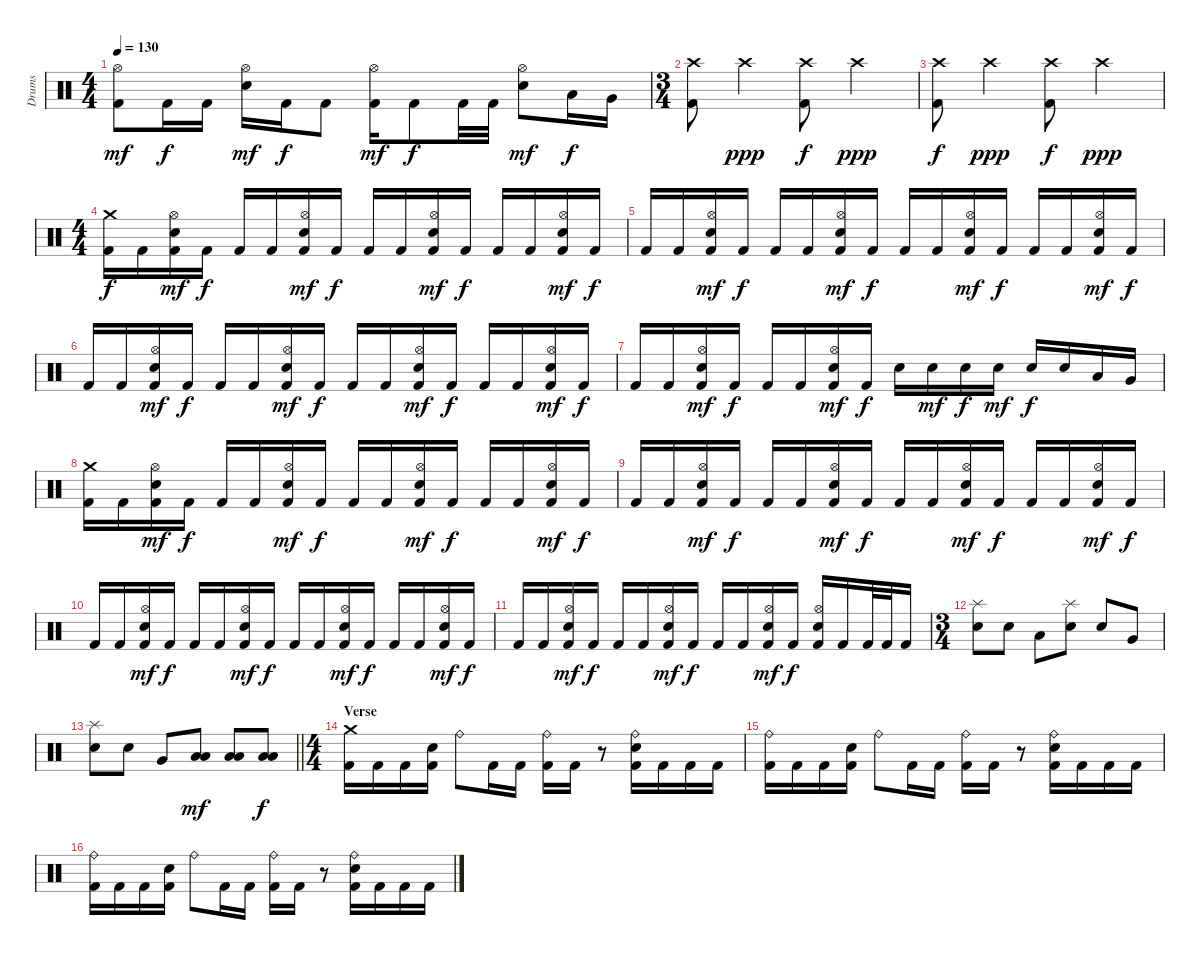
\track ("Drums" "Drums") {instrument percussion}
\staff {score}
\articulation defaults
\ts (4 4)
\tempo 130
\clef neutral
\ks c
("Kick (hit) 2" "Hi-Hat (open)").8{dy mf} "Kick (hit) 2".16{dy f} "Kick (hit) 2".16 ("Hi-Hat (open)" "Electric Snare (hit)").16{dy mf} "Kick (hit) 2".16{dy f} "Kick (hit) 2".8 ("Kick (hit) 2" "Hi-Hat (open)").16{dy mf} "Kick (hit) 2".8{dy f} "Kick (hit) 2".32 "Kick (hit) 2".32 ("Hi-Hat (open)" "Electric Snare (hit)").8{dy mf} "Low Tom (hit)".16{dy f} "Very Low Tom (hit)".16 |
\ts (3 4)
("Kick (hit) 2" "Crash high (hit)").8 "Crash high (hit)".4{dy ppp} ("Kick (hit) 2" "Crash high (hit)").8{dy f} "Crash high (hit)".4{dy ppp} |
("Kick (hit) 2" "Crash high (hit)").8{dy f} "Crash high (hit)".4{dy ppp} ("Kick (hit) 2" "Crash high (hit)").8{dy f} "Crash high (hit)".4{dy ppp} |
\ts (4 4)
("Kick (hit) 2" "Crash medium (hit)").16{dy f} "Kick (hit) 2".16 ("Kick (hit) 2" "Hi-Hat (open)" "Electric Snare (hit)").16{dy mf} "Kick (hit) 2".16{dy f} "Kick (hit) 2".16 "Kick (hit) 2".16 ("Kick (hit) 2" "Hi-Hat (open)" "Electric Snare (hit)").16{dy mf} "Kick (hit) 2".16{dy f} "Kick (hit) 2".16 "Kick (hit) 2".16 ("Kick (hit) 2" "Hi-Hat (open)" "Electric Snare (hit)").16{dy mf} "Kick (hit) 2".16{dy f} "Kick (hit) 2".16 "Kick (hit) 2".16 ("Kick (hit) 2" "Hi-Hat (open)" "Electric Snare (hit)").16{dy mf} "Kick (hit) 2".16{dy f} |
"Kick (hit) 2".16 "Kick (hit) 2".16 ("Kick (hit) 2" "Hi-Hat (open)" "Electric Snare (hit)").16{dy mf} "Kick (hit) 2".16{dy f} "Kick (hit) 2".16 "Kick (hit) 2".16 ("Kick (hit) 2" "Hi-Hat (open)" "Electric Snare (hit)").16{dy mf} "Kick (hit) 2".16{dy f} "Kick (hit) 2".16 "Kick (hit) 2".16 ("Kick (hit) 2" "Hi-Hat (open)" "Electric Snare (hit)").16{dy mf} "Kick (hit) 2".16{dy f} "Kick (hit) 2".16 "Kick (hit) 2".16 ("Kick (hit) 2" "Hi-Hat (open)" "Electric Snare (hit)").16{dy mf} "Kick (hit) 2".16{dy f} |
"Kick (hit) 2".16 "Kick (hit) 2".16 ("Kick (hit) 2" "Hi-Hat (open)" "Electric Snare (hit)").16{dy mf} "Kick (hit) 2".16{dy f} "Kick (hit) 2".16 "Kick (hit) 2".16 ("Kick (hit) 2" "Hi-Hat (open)" "Electric Snare (hit)").16{dy mf} "Kick (hit) 2".16{dy f} "Kick (hit) 2".16 "Kick (hit) 2".16 ("Kick (hit) 2" "Hi-Hat (open)" "Electric Snare (hit)").16{dy mf} "Kick (hit) 2".16{dy f} "Kick (hit) 2".16 "Kick (hit) 2".16 ("Kick (hit) 2" "Hi-Hat (open)" "Electric Snare (hit)").16{dy mf} "Kick (hit) 2".16{dy f} |
"Kick (hit) 2".16 "Kick (hit) 2".16 ("Kick (hit) 2" "Hi-Hat (open)" "Electric Snare (hit)").16{dy mf} "Kick (hit) 2".16{dy f} "Kick (hit) 2".16 "Kick (hit) 2".16 ("Kick (hit) 2" "Hi-Hat (open)" "Electric Snare (hit)").16{dy mf} "Kick (hit) 2".16{dy f} "Electric Snare (hit)".16 "Electric Snare (hit)".16{dy mf} "Electric Snare (hit)".16{dy f} "Electric Snare (hit)".16{dy mf} "Electric Snare (hit)".16{dy f} "Electric Snare (hit)".16 "Low Tom (hit)".16 "Very Low Tom (hit)".16 |
("Kick (hit) 2" "Crash medium (hit)").16 "Kick (hit) 2".16 ("Kick (hit) 2" "Hi-Hat (open)" "Electric Snare (hit)").16{dy mf} "Kick (hit) 2".16{dy f} "Kick (hit) 2".16 "Kick (hit) 2".16 ("Kick (hit) 2" "Hi-Hat (open)" "Electric Snare (hit)").16{dy mf} "Kick (hit) 2".16{dy f} "Kick (hit) 2".16 "Kick (hit) 2".16 ("Kick (hit) 2" "Hi-Hat (open)" "Electric Snare (hit)").16{dy mf} "Kick (hit) 2".16{dy f} "Kick (hit) 2".16 "Kick (hit) 2".16 ("Kick (hit) 2" "Hi-Hat (open)" "Electric Snare (hit)").16{dy mf} "Kick (hit) 2".16{dy f} |
"Kick (hit) 2".16 "Kick (hit) 2".16 ("Kick (hit) 2" "Hi-Hat (open)" "Electric Snare (hit)").16{dy mf} "Kick (hit) 2".16{dy f} "Kick (hit) 2".16 "Kick (hit) 2".16 ("Kick (hit) 2" "Hi-Hat (open)" "Electric Snare (hit)").16{dy mf} "Kick (hit) 2".16{dy f} "Kick (hit) 2".16 "Kick (hit) 2".16 ("Kick (hit) 2" "Hi-Hat (open)" "Electric Snare (hit)").16{dy mf} "Kick (hit) 2".16{dy f} "Kick (hit) 2".16 "Kick (hit) 2".16 ("Kick (hit) 2" "Hi-Hat (open)" "Electric Snare (hit)").16{dy mf} "Kick (hit) 2".16{dy f} |
"Kick (hit) 2".16 "Kick (hit) 2".16 ("Kick (hit) 2" "Hi-Hat (open)" "Electric Snare (hit)").16{dy mf} "Kick (hit) 2".16{dy f} "Kick (hit) 2".16 "Kick (hit) 2".16 ("Kick (hit) 2" "Hi-Hat (open)" "Electric Snare (hit)").16{dy mf} "Kick (hit) 2".16{dy f} "Kick (hit) 2".16 "Kick (hit) 2".16 ("Kick (hit) 2" "Hi-Hat (open)" "Electric Snare (hit)").16{dy mf} "Kick (hit) 2".16{dy f} "Kick (hit) 2".16 "Kick (hit) 2".16 ("Kick (hit) 2" "Hi-Hat (open)" "Electric Snare (hit)").16{dy mf} "Kick (hit) 2".16{dy f} |
"Kick (hit) 2".16 "Kick (hit) 2".16 ("Kick (hit) 2" "Hi-Hat (open)" "Electric Snare (hit)").16{dy mf} "Kick (hit) 2".16{dy f} "Kick (hit) 2".16 "Kick (hit) 2".16 ("Kick (hit) 2" "Hi-Hat (open)" "Electric Snare (hit)").16{dy mf} "Kick (hit) 2".16{dy f} "Kick (hit) 2".16 "Kick (hit) 2".16 ("Kick (hit) 2" "Hi-Hat (open)" "Electric Snare (hit)").16{dy mf} "Kick (hit) 2".16{dy f} ("Kick (hit) 2" "Hi-Hat (open)" "Electric Snare (hit)").16 "Kick (hit) 2".16 "Kick (hit) 2".32 "Kick (hit) 2".32 "Kick (hit) 2".16 |
\ts (3 4)
("Splash (hit)" "Electric Snare (hit)").8 "Electric Snare (hit)".8 "Low Tom (hit)".8 ("Splash (hit)" "Electric Snare (hit)").8 "Electric Snare (hit)".8 "Very Low Tom (hit)".8 |
\barLineRight lightlight
("Splash (hit)" "Electric Snare (hit)").8 "Electric Snare (hit)".8 "Very Low Tom (hit)".8 ("Low Floor Tom (hit)" "Low Tom (hit)").8{dy mf} ("Low Floor Tom (hit)" "Low Tom (hit)").8 ("Low Floor Tom (hit)" "Low Tom (hit)").8{dy f} |
\ts (4 4)
\section ("" "Verse")
("Kick (hit) 2" "Crash medium (hit)").16 "Kick (hit) 2".16 "Kick (hit) 2".16 ("Kick (hit) 2" "Electric Snare (hit)").16 "Ride (bell)".8 "Kick (hit) 2".16 "Kick (hit) 2".16 ("Kick (hit) 2" "Ride (bell)").16 "Kick (hit) 2".16 r.8 ("Kick (hit) 2" "Ride (bell)" "Electric Snare (hit)").16 "Kick (hit) 2".16 "Kick (hit) 2".16 "Kick (hit) 2".16 |
("Kick (hit) 2" "Ride (bell)").16 "Kick (hit) 2".16 "Kick (hit) 2".16 ("Kick (hit) 2" "Electric Snare (hit)").16 "Ride (bell)".8 "Kick (hit) 2".16 "Kick (hit) 2".16 ("Kick (hit) 2" "Ride (bell)").16 "Kick (hit) 2".16 r.8 ("Kick (hit) 2" "Ride (bell)" "Electric Snare (hit)").16 "Kick (hit) 2".16 "Kick (hit) 2".16 "Kick (hit) 2".16 |
("Kick (hit) 2" "Ride (bell)").16 "Kick (hit) 2".16 "Kick (hit) 2".16 ("Kick (hit) 2" "Electric Snare (hit)").16 "Ride (bell)".8 "Kick (hit) 2".16 "Kick (hit) 2".16 ("Kick (hit) 2" "Ride (bell)").16 "Kick (hit) 2".16 r.8 ("Kick (hit) 2" "Ride (bell)" "Electric Snare (hit)").16 "Kick (hit) 2".16 "Kick (hit) 2".16 "Kick (hit) 2".16
